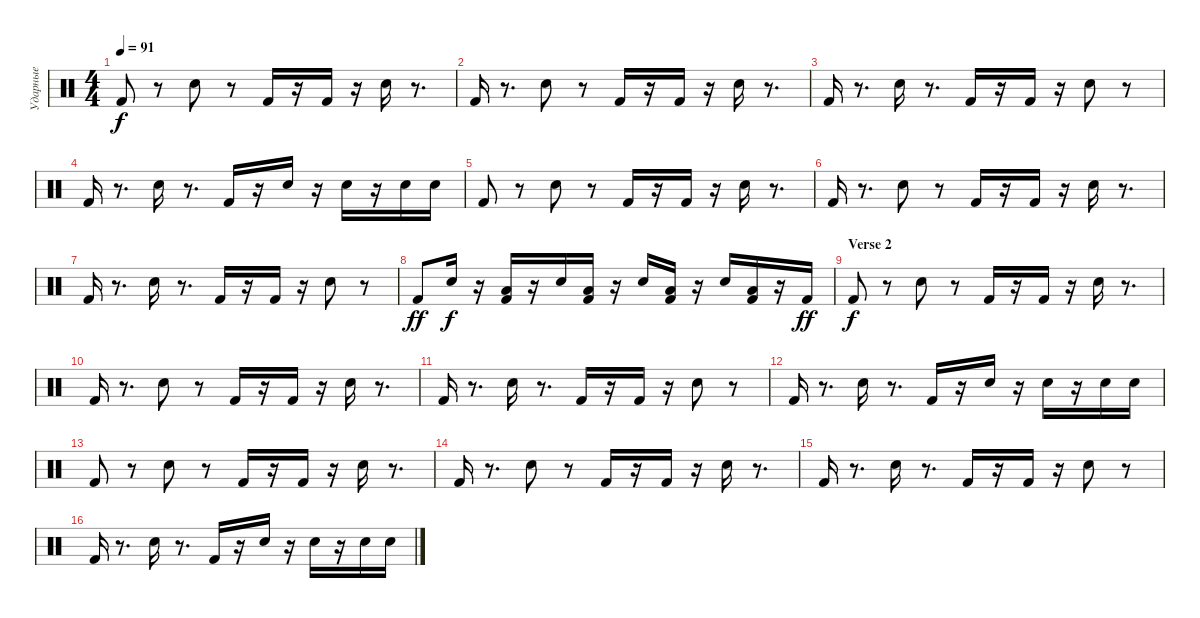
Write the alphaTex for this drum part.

\track ("Ударные" "Ударные") {instrument percussion}
\staff {score}
\articulation defaults
\ts (4 4)
\tempo 91
\clef neutral
\ks c "Kick (hit) 2".8{dy f}
r.8 "Electric Snare (hit)".8 r.8 "Kick (hit) 2".16 r.16 "Kick (hit) 2".16 r.16 "Electric Snare (hit)".16 r.8{d} |
"Kick (hit) 2".16 r.8{d} "Electric Snare (hit)".8 r.8 "Kick (hit) 2".16 r.16 "Kick (hit) 2".16 r.16 "Electric Snare (hit)".16 r.8{d} |
"Kick (hit) 2".16 r.8{d} "Electric Snare (hit)".16 r.8{d} "Kick (hit) 2".16 r.16 "Kick (hit) 2".16 r.16 "Electric Snare (hit)".8 r.8 |
"Kick (hit) 2".16 r.8{d} "Electric Snare (hit)".16 r.8{d} "Kick (hit) 2".16 r.16 "Electric Snare (hit)".16 r.16 "Electric Snare (hit)".16 r.16 "Electric Snare (hit)".16 "Electric Snare (hit)".16 |
"Kick (hit) 2".8 r.8 "Electric Snare (hit)".8 r.8 "Kick (hit) 2".16 r.16 "Kick (hit) 2".16 r.16 "Electric Snare (hit)".16 r.8{d} |
"Kick (hit) 2".16 r.8{d} "Electric Snare (hit)".8 r.8 "Kick (hit) 2".16 r.16 "Kick (hit) 2".16 r.16 "Electric Snare (hit)".16 r.8{d} |
"Kick (hit) 2".16 r.8{d} "Electric Snare (hit)".16 r.8{d} "Kick (hit) 2".16 r.16 "Kick (hit) 2".16 r.16 "Electric Snare (hit)".8 r.8 |
"Kick (hit) 2".8{dy ff} "Electric Snare (hit)".16{dy f} r.16 ("Low Floor Tom (hit)" "Kick (hit) 2").16 r.16 "Electric Snare (hit)".16 ("Low Floor Tom (hit)" "Kick (hit) 2").16 r.16 "Electric Snare (hit)".16 ("Low Floor Tom (hit)" "Kick (hit) 2").16 r.16 "Electric Snare (hit)".16 ("Low Floor Tom (hit)" "Kick (hit) 2").16 r.16 "Kick (hit) 2".16{dy ff} |
\section ("" "Verse 2")
"Kick (hit) 2".8{dy f} r.8 "Electric Snare (hit)".8 r.8 "Kick (hit) 2".16 r.16 "Kick (hit) 2".16 r.16 "Electric Snare (hit)".16 r.8{d} |
"Kick (hit) 2".16 r.8{d} "Electric Snare (hit)".8 r.8 "Kick (hit) 2".16 r.16 "Kick (hit) 2".16 r.16 "Electric Snare (hit)".16 r.8{d} |
"Kick (hit) 2".16 r.8{d} "Electric Snare (hit)".16 r.8{d} "Kick (hit) 2".16 r.16 "Kick (hit) 2".16 r.16 "Electric Snare (hit)".8 r.8 |
"Kick (hit) 2".16 r.8{d} "Electric Snare (hit)".16 r.8{d} "Kick (hit) 2".16 r.16 "Electric Snare (hit)".16 r.16 "Electric Snare (hit)".16 r.16 "Electric Snare (hit)".16 "Electric Snare (hit)".16 |
"Kick (hit) 2".8 r.8 "Electric Snare (hit)".8 r.8 "Kick (hit) 2".16 r.16 "Kick (hit) 2".16 r.16 "Electric Snare (hit)".16 r.8{d} |
"Kick (hit) 2".16 r.8{d} "Electric Snare (hit)".8 r.8 "Kick (hit) 2".16 r.16 "Kick (hit) 2".16 r.16 "Electric Snare (hit)".16 r.8{d} |
"Kick (hit) 2".16 r.8{d} "Electric Snare (hit)".16 r.8{d} "Kick (hit) 2".16 r.16 "Kick (hit) 2".16 r.16 "Electric Snare (hit)".8 r.8 |
"Kick (hit) 2".16 r.8{d} "Electric Snare (hit)".16 r.8{d} "Kick (hit) 2".16 r.16 "Electric Snare (hit)".16 r.16 "Electric Snare (hit)".16 r.16 "Electric Snare (hit)".16 "Electric Snare (hit)".16
